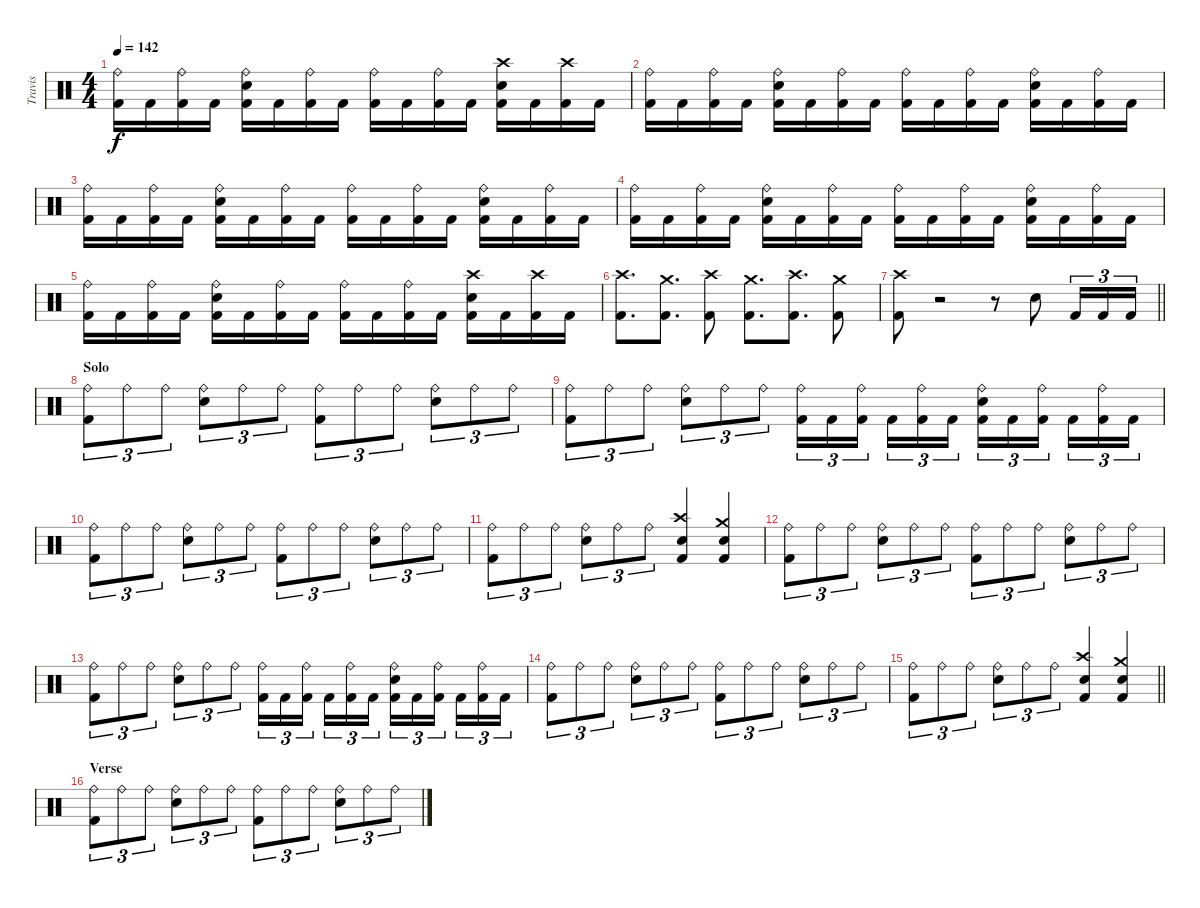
\track ("Travis" "Travis") {instrument percussion}
\staff {score}
\articulation defaults
\ts (4 4)
\tempo 142
\clef neutral
\ks c
("Ride (bell)" "Kick (hit) 2").16{dy f} "Kick (hit) 2".16 ("Ride (bell)" "Kick (hit) 2").16 "Kick (hit) 2".16 ("Ride (bell)" "Snare (hit) 2" "Kick (hit) 2").16 "Kick (hit) 2".16 ("Ride (bell)" "Kick (hit) 2").16 "Kick (hit) 2".16 ("Ride (bell)" "Kick (hit) 2").16 "Kick (hit) 2".16 ("Ride (bell)" "Kick (hit) 2").16 "Kick (hit) 2".16 ("Crash high (hit)" "Snare (hit) 2" "Kick (hit) 2").16 "Kick (hit) 2".16 ("Crash high (hit)" "Kick (hit) 2").16 "Kick (hit) 2".16 |
("Ride (bell)" "Kick (hit) 2").16 "Kick (hit) 2".16 ("Ride (bell)" "Kick (hit) 2").16 "Kick (hit) 2".16 ("Ride (bell)" "Snare (hit) 2" "Kick (hit) 2").16 "Kick (hit) 2".16 ("Ride (bell)" "Kick (hit) 2").16 "Kick (hit) 2".16 ("Ride (bell)" "Kick (hit) 2").16 "Kick (hit) 2".16 ("Ride (bell)" "Kick (hit) 2").16 "Kick (hit) 2".16 ("Ride (bell)" "Snare (hit) 2" "Kick (hit) 2").16 "Kick (hit) 2".16 ("Ride (bell)" "Kick (hit) 2").16 "Kick (hit) 2".16 |
("Ride (bell)" "Kick (hit) 2").16 "Kick (hit) 2".16 ("Ride (bell)" "Kick (hit) 2").16 "Kick (hit) 2".16 ("Ride (bell)" "Snare (hit) 2" "Kick (hit) 2").16 "Kick (hit) 2".16 ("Ride (bell)" "Kick (hit) 2").16 "Kick (hit) 2".16 ("Ride (bell)" "Kick (hit) 2").16 "Kick (hit) 2".16 ("Ride (bell)" "Kick (hit) 2").16 "Kick (hit) 2".16 ("Ride (bell)" "Snare (hit) 2" "Kick (hit) 2").16 "Kick (hit) 2".16 ("Ride (bell)" "Kick (hit) 2").16 "Kick (hit) 2".16 |
("Ride (bell)" "Kick (hit) 2").16 "Kick (hit) 2".16 ("Ride (bell)" "Kick (hit) 2").16 "Kick (hit) 2".16 ("Ride (bell)" "Snare (hit) 2" "Kick (hit) 2").16 "Kick (hit) 2".16 ("Ride (bell)" "Kick (hit) 2").16 "Kick (hit) 2".16 ("Ride (bell)" "Kick (hit) 2").16 "Kick (hit) 2".16 ("Ride (bell)" "Kick (hit) 2").16 "Kick (hit) 2".16 ("Ride (bell)" "Snare (hit) 2" "Kick (hit) 2").16 "Kick (hit) 2".16 ("Ride (bell)" "Kick (hit) 2").16 "Kick (hit) 2".16 |
("Ride (bell)" "Kick (hit) 2").16 "Kick (hit) 2".16 ("Ride (bell)" "Kick (hit) 2").16 "Kick (hit) 2".16 ("Ride (bell)" "Snare (hit) 2" "Kick (hit) 2").16 "Kick (hit) 2".16 ("Ride (bell)" "Kick (hit) 2").16 "Kick (hit) 2".16 ("Ride (bell)" "Kick (hit) 2").16 "Kick (hit) 2".16 ("Ride (bell)" "Kick (hit) 2").16 "Kick (hit) 2".16 ("Crash high (hit)" "Snare (hit) 2" "Kick (hit) 2").16 "Kick (hit) 2".16 ("Crash high (hit)" "Kick (hit) 2").16 "Kick (hit) 2".16 |
("Kick (hit) 2" "Crash high (hit)").8{d} ("Kick (hit) 2" "Crash medium (hit)").8{d} ("Kick (hit) 2" "Crash high (hit)").8 ("Kick (hit) 2" "Crash medium (hit)").8{d} ("Kick (hit) 2" "Crash high (hit)").8{d} ("Kick (hit) 2" "Crash medium (hit)").8 |
\barLineRight lightlight
("Crash high (hit)" "Kick (hit) 2").8 r.2 r.8 "Snare (hit) 2".8 "Kick (hit) 2".16{tu (3 2)} "Kick (hit) 2".16{tu (3 2)} "Kick (hit) 2".16{tu (3 2)} |
\section ("" "Solo")
("Ride (bell)" "Kick (hit) 2").8{tu (3 2)} "Ride (bell)".8{tu (3 2)} "Ride (bell)".8{tu (3 2)} ("Ride (bell)" "Electric Snare (hit)").8{tu (3 2)} "Ride (bell)".8{tu (3 2)} "Ride (bell)".8{tu (3 2)} ("Ride (bell)" "Kick (hit) 2").8{tu (3 2)} "Ride (bell)".8{tu (3 2)} "Ride (bell)".8{tu (3 2)} ("Ride (bell)" "Electric Snare (hit)").8{tu (3 2)} "Ride (bell)".8{tu (3 2)} "Ride (bell)".8{tu (3 2)} |
("Ride (bell)" "Kick (hit) 2").8{tu (3 2)} "Ride (bell)".8{tu (3 2)} "Ride (bell)".8{tu (3 2)} ("Ride (bell)" "Electric Snare (hit)").8{tu (3 2)} "Ride (bell)".8{tu (3 2)} "Ride (bell)".8{tu (3 2)} ("Ride (bell)" "Kick (hit) 2").16{tu (3 2)} "Kick (hit) 2".16{tu (3 2)} ("Ride (bell)" "Kick (hit) 2").16{tu (3 2) beam splitsecondary} "Kick (hit) 2".16{tu (3 2)} ("Ride (bell)" "Kick (hit) 2").16{tu (3 2)} "Kick (hit) 2".16{tu (3 2)} ("Ride (bell)" "Electric Snare (hit)" "Kick (hit) 2").16{tu (3 2)} "Kick (hit) 2".16{tu (3 2)} ("Ride (bell)" "Kick (hit) 2").16{tu (3 2) beam splitsecondary} "Kick (hit) 2".16{tu (3 2)} ("Ride (bell)" "Kick (hit) 2").16{tu (3 2)} "Kick (hit) 2".16{tu (3 2)} |
("Ride (bell)" "Kick (hit) 2").8{tu (3 2)} "Ride (bell)".8{tu (3 2)} "Ride (bell)".8{tu (3 2)} ("Ride (bell)" "Electric Snare (hit)").8{tu (3 2)} "Ride (bell)".8{tu (3 2)} "Ride (bell)".8{tu (3 2)} ("Ride (bell)" "Kick (hit) 2").8{tu (3 2)} "Ride (bell)".8{tu (3 2)} "Ride (bell)".8{tu (3 2)} ("Ride (bell)" "Electric Snare (hit)").8{tu (3 2)} "Ride (bell)".8{tu (3 2)} "Ride (bell)".8{tu (3 2)} |
("Ride (bell)" "Kick (hit) 2").8{tu (3 2)} "Ride (bell)".8{tu (3 2)} "Ride (bell)".8{tu (3 2)} ("Ride (bell)" "Electric Snare (hit)").8{tu (3 2)} "Ride (bell)".8{tu (3 2)} "Ride (bell)".8{tu (3 2)} ("Crash high (hit)" "Electric Snare (hit)" "Kick (hit) 2").4 ("Crash medium (hit)" "Electric Snare (hit)" "Kick (hit) 2").4 |
("Ride (bell)" "Kick (hit) 2").8{tu (3 2)} "Ride (bell)".8{tu (3 2)} "Ride (bell)".8{tu (3 2)} ("Ride (bell)" "Electric Snare (hit)").8{tu (3 2)} "Ride (bell)".8{tu (3 2)} "Ride (bell)".8{tu (3 2)} ("Ride (bell)" "Kick (hit) 2").8{tu (3 2)} "Ride (bell)".8{tu (3 2)} "Ride (bell)".8{tu (3 2)} ("Ride (bell)" "Electric Snare (hit)").8{tu (3 2)} "Ride (bell)".8{tu (3 2)} "Ride (bell)".8{tu (3 2)} |
("Ride (bell)" "Kick (hit) 2").8{tu (3 2)} "Ride (bell)".8{tu (3 2)} "Ride (bell)".8{tu (3 2)} ("Ride (bell)" "Electric Snare (hit)").8{tu (3 2)} "Ride (bell)".8{tu (3 2)} "Ride (bell)".8{tu (3 2)} ("Ride (bell)" "Kick (hit) 2").16{tu (3 2)} "Kick (hit) 2".16{tu (3 2)} ("Ride (bell)" "Kick (hit) 2").16{tu (3 2) beam splitsecondary} "Kick (hit) 2".16{tu (3 2)} ("Ride (bell)" "Kick (hit) 2").16{tu (3 2)} "Kick (hit) 2".16{tu (3 2)} ("Ride (bell)" "Electric Snare (hit)" "Kick (hit) 2").16{tu (3 2)} "Kick (hit) 2".16{tu (3 2)} ("Ride (bell)" "Kick (hit) 2").16{tu (3 2) beam splitsecondary} "Kick (hit) 2".16{tu (3 2)} ("Ride (bell)" "Kick (hit) 2").16{tu (3 2)} "Kick (hit) 2".16{tu (3 2)} |
("Ride (bell)" "Kick (hit) 2").8{tu (3 2)} "Ride (bell)".8{tu (3 2)} "Ride (bell)".8{tu (3 2)} ("Ride (bell)" "Electric Snare (hit)").8{tu (3 2)} "Ride (bell)".8{tu (3 2)} "Ride (bell)".8{tu (3 2)} ("Ride (bell)" "Kick (hit) 2").8{tu (3 2)} "Ride (bell)".8{tu (3 2)} "Ride (bell)".8{tu (3 2)} ("Ride (bell)" "Electric Snare (hit)").8{tu (3 2)} "Ride (bell)".8{tu (3 2)} "Ride (bell)".8{tu (3 2)} |
\barLineRight lightlight
("Ride (bell)" "Kick (hit) 2").8{tu (3 2)} "Ride (bell)".8{tu (3 2)} "Ride (bell)".8{tu (3 2)} ("Ride (bell)" "Electric Snare (hit)").8{tu (3 2)} "Ride (bell)".8{tu (3 2)} "Ride (bell)".8{tu (3 2)} ("Crash high (hit)" "Electric Snare (hit)" "Kick (hit) 2").4 ("Crash medium (hit)" "Electric Snare (hit)" "Kick (hit) 2").4 |
\section ("" "Verse")
("Ride (bell)" "Kick (hit) 2").8{tu (3 2)} "Ride (bell)".8{tu (3 2)} "Ride (bell)".8{tu (3 2)} ("Ride (bell)" "Electric Snare (hit)").8{tu (3 2)} "Ride (bell)".8{tu (3 2)} "Ride (bell)".8{tu (3 2)} ("Ride (bell)" "Kick (hit) 2").8{tu (3 2)} "Ride (bell)".8{tu (3 2)} "Ride (bell)".8{tu (3 2)} ("Ride (bell)" "Electric Snare (hit)").8{tu (3 2)} "Ride (bell)".8{tu (3 2)} "Ride (bell)".8{tu (3 2)}
